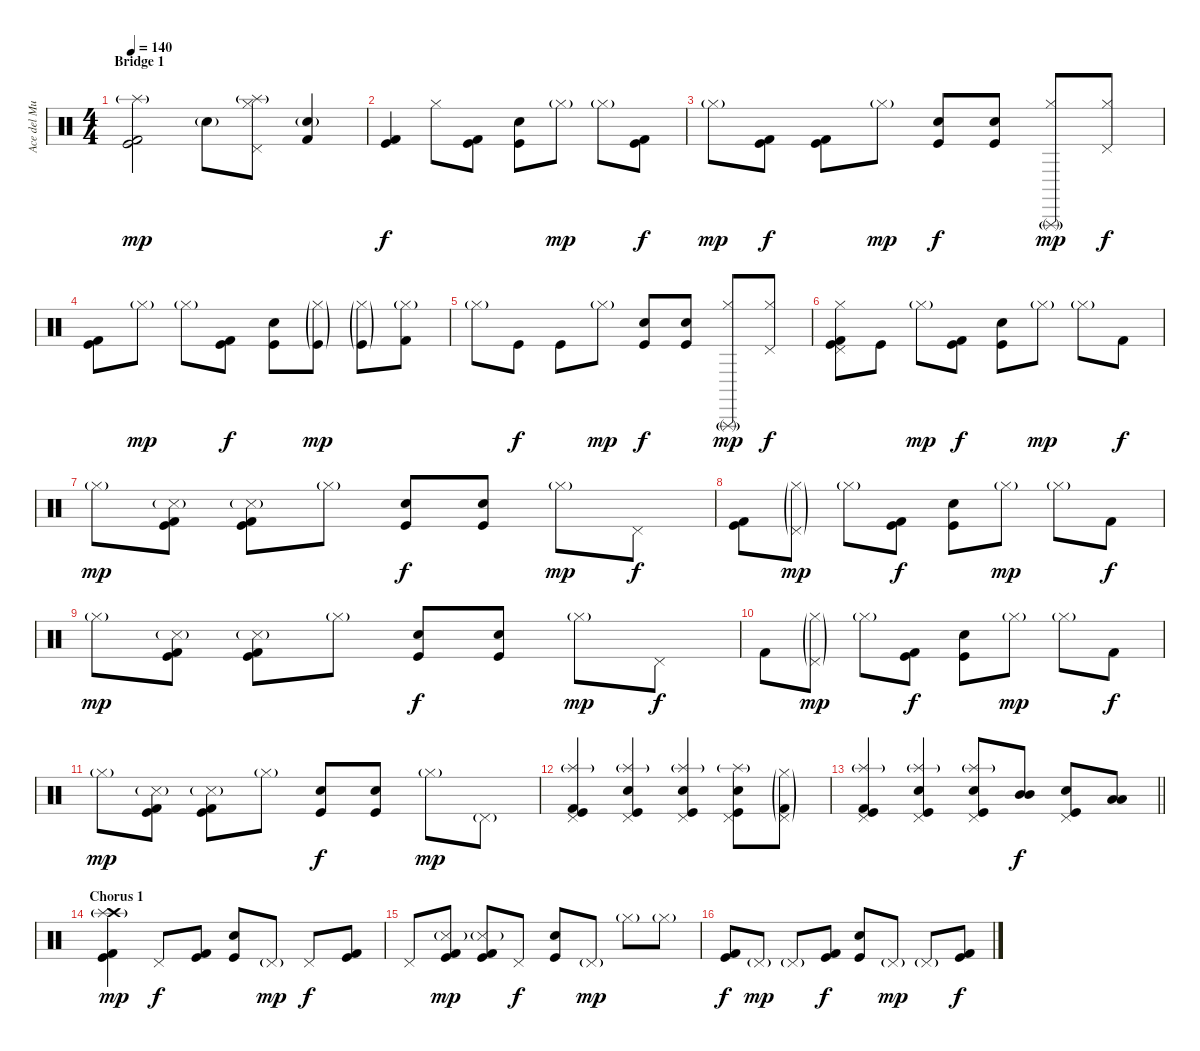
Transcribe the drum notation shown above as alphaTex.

\track ("Ace del Mundo(Drums)" "Ace del Mu") {instrument percussion}
\staff {score}
\articulation defaults
\ts (4 4)
\section ("" "Bridge 1")
\tempo 140
\clef neutral
\ks c
("Kick (hit) 2" "Kick (hit)" "Splash (hit)"{g}).2{dy mp} "Electric Snare (hit)"{g}.8 ("Pedal Hi-Hat (hit)" "Hi-Hat (closed)" "Splash (hit)"{g}).8 ("Electric Snare (hit)"{g} "Kick (hit) 2").4 |
("Kick (hit) 2" "Kick (hit)").4{dy f} "Hi-Hat (closed)".8 ("Kick (hit) 2" "Kick (hit)").8 ("Electric Snare (hit)" "Kick (hit)").8 "Hi-Hat (closed)"{g}.8{dy mp} "Hi-Hat (closed)"{g}.8 ("Kick (hit) 2" "Kick (hit)").8{dy f} |
"Hi-Hat (closed)"{g}.8{dy mp} ("Kick (hit) 2" "Kick (hit)").8{dy f} ("Kick (hit) 2" "Kick (hit)").8 "Hi-Hat (closed)"{g}.8{dy mp} ("Electric Snare (hit)" "Kick (hit)").8{dy f} ("Electric Snare (hit)" "Kick (hit)").8 ("Hi-Hat (closed)" "Triangle (rnute)"{g}).8{dy mp} ("Pedal Hi-Hat (hit)" "Hi-Hat (closed)").8{dy f} |
("Kick (hit) 2" "Kick (hit)").8 "Hi-Hat (closed)"{g}.8{dy mp} "Hi-Hat (closed)"{g}.8 ("Kick (hit) 2" "Kick (hit)").8{dy f} ("Electric Snare (hit)" "Kick (hit)").8 ("Hi-Hat (closed)"{g} "Kick (hit)"{g}).8{dy mp} ("Hi-Hat (closed)"{g} "Kick (hit)"{g}).8 ("Hi-Hat (closed)"{g} "Kick (hit) 2").8 |
"Hi-Hat (closed)"{g}.8 "Kick (hit)".8{dy f} "Kick (hit)".8 "Hi-Hat (closed)"{g}.8{dy mp} ("Electric Snare (hit)" "Kick (hit)").8{dy f} ("Electric Snare (hit)" "Kick (hit)").8 ("Hi-Hat (closed)" "Triangle (rnute)"{g}).8{dy mp} ("Pedal Hi-Hat (hit)" "Hi-Hat (closed)").8{dy f} |
("Pedal Hi-Hat (hit)" "Hi-Hat (closed)" "Kick (hit) 2" "Kick (hit)").8 "Kick (hit)".8 "Hi-Hat (closed)"{g}.8{dy mp} ("Kick (hit) 2" "Kick (hit)").8{dy f} ("Electric Snare (hit)" "Kick (hit)").8 "Hi-Hat (closed)"{g}.8{dy mp} "Hi-Hat (closed)"{g}.8 "Kick (hit) 2".8{dy f} |
"Hi-Hat (closed)"{g}.8{dy mp} ("Kick (hit) 2" "Kick (hit)" "Snare (side stick) 3"{g}).8 ("Kick (hit) 2" "Kick (hit)" "Snare (side stick) 3"{g}).8 "Hi-Hat (closed)"{g}.8 ("Electric Snare (hit)" "Kick (hit)").8{dy f} ("Electric Snare (hit)" "Kick (hit)").8 "Hi-Hat (closed)"{g}.8{dy mp} "Pedal Hi-Hat (hit)".8{dy f} |
("Kick (hit) 2" "Kick (hit)").8 ("Hi-Hat (closed)"{g} "Pedal Hi-Hat (hit)"{g}).8{dy mp} "Hi-Hat (closed)"{g}.8 ("Kick (hit) 2" "Kick (hit)").8{dy f} ("Electric Snare (hit)" "Kick (hit)").8 "Hi-Hat (closed)"{g}.8{dy mp} "Hi-Hat (closed)"{g}.8 "Kick (hit) 2".8{dy f} |
"Hi-Hat (closed)"{g}.8{dy mp} ("Kick (hit) 2" "Kick (hit)" "Snare (side stick) 3"{g}).8 ("Kick (hit) 2" "Kick (hit)" "Snare (side stick) 3"{g}).8 "Hi-Hat (closed)"{g}.8 ("Electric Snare (hit)" "Kick (hit)").8{dy f} ("Electric Snare (hit)" "Kick (hit)").8 "Hi-Hat (closed)"{g}.8{dy mp} "Pedal Hi-Hat (hit)".8{dy f} |
"Kick (hit) 2".8 ("Hi-Hat (closed)"{g} "Pedal Hi-Hat (hit)"{g}).8{dy mp} "Hi-Hat (closed)"{g}.8 ("Kick (hit) 2" "Kick (hit)").8{dy f} ("Electric Snare (hit)" "Kick (hit)").8 "Hi-Hat (closed)"{g}.8{dy mp} "Hi-Hat (closed)"{g}.8 "Kick (hit) 2".8{dy f} |
"Hi-Hat (closed)"{g}.8{dy mp} ("Kick (hit) 2" "Kick (hit)" "Snare (side stick) 3"{g}).8 ("Kick (hit) 2" "Kick (hit)" "Snare (side stick) 3"{g}).8 "Hi-Hat (closed)"{g}.8 ("Electric Snare (hit)" "Kick (hit)").8{dy f} ("Electric Snare (hit)" "Kick (hit)").8 "Hi-Hat (closed)"{g}.8{dy mp} "Pedal Hi-Hat (hit)"{g}.8 |
("Pedal Hi-Hat (hit)" "Kick (hit) 2" "Kick (hit)" "Splash (hit)"{g}).4 ("Pedal Hi-Hat (hit)" "Electric Snare (hit)" "Kick (hit)" "Splash (hit)"{g}).4 ("Pedal Hi-Hat (hit)" "Electric Snare (hit)" "Kick (hit)" "Splash (hit)"{g}).4 ("Pedal Hi-Hat (hit)" "Electric Snare (hit)" "Kick (hit)" "Splash (hit)"{g}).8 ("Pedal Hi-Hat (hit)"{g} "Hi-Hat (closed)"{g} "Kick (hit) 2"{g}).8 |
\barLineRight lightlight
("Pedal Hi-Hat (hit)" "Kick (hit) 2" "Kick (hit)" "Splash (hit)"{g}).4 ("Pedal Hi-Hat (hit)" "Electric Snare (hit)" "Kick (hit)" "Splash (hit)"{g}).4 ("Pedal Hi-Hat (hit)" "Electric Snare (hit)" "Kick (hit)" "Splash (hit)"{g}).8 ("Mid Tom (hit)" "Mid Tom (hit)").8{dy f} ("Pedal Hi-Hat (hit)" "Electric Snare (hit)" "Kick (hit)").8 ("Low Tom (hit)" "Low Tom (hit)").8 |
\section ("" "Chorus 1")
("Crash high (hit)"{g} "Splash (hit)"{g} "Kick (hit) 2" "Kick (hit)").4{dy mp} "Pedal Hi-Hat (hit)".8{dy f} ("Kick (hit) 2" "Kick (hit)").8 ("Electric Snare (hit)" "Kick (hit)").8 "Pedal Hi-Hat (hit)"{g}.8{dy mp} "Pedal Hi-Hat (hit)".8{dy f} ("Kick (hit) 2" "Kick (hit)").8 |
"Pedal Hi-Hat (hit)".8 ("Kick (hit) 2" "Kick (hit)" "Snare (side stick) 3"{g}).8{dy mp} ("Kick (hit) 2" "Kick (hit)" "Snare (side stick) 3"{g}).8 "Pedal Hi-Hat (hit)".8{dy f} ("Electric Snare (hit)" "Kick (hit)").8 "Pedal Hi-Hat (hit)"{g}.8{dy mp} "Hi-Hat (closed)"{g}.8 "Hi-Hat (closed)"{g}.8 |
("Kick (hit) 2" "Kick (hit)").8{dy f} "Pedal Hi-Hat (hit)"{g}.8{dy mp} "Pedal Hi-Hat (hit)"{g}.8 ("Kick (hit) 2" "Kick (hit)").8{dy f} ("Electric Snare (hit)" "Kick (hit)").8 "Pedal Hi-Hat (hit)"{g}.8{dy mp} "Pedal Hi-Hat (hit)"{g}.8 ("Kick (hit) 2" "Kick (hit)").8{dy f}
